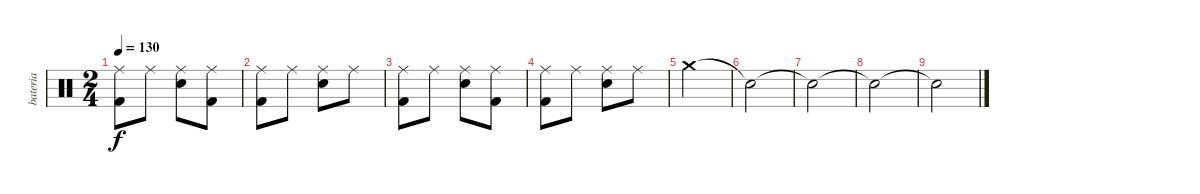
\track ("bateria" "bateria") {instrument percussion}
\staff {score}
\articulation defaults
\ts (2 4)
\tempo 130
\clef neutral
\ks c
("Ride (middle)" "Kick (hit) 2").8{dy f} "Ride (middle)".8 ("Ride (middle)" "Electric Snare (hit)").8 ("Ride (middle)" "Kick (hit) 2").8 |
("Ride (middle)" "Kick (hit) 2").8 "Ride (middle)".8 ("Ride (middle)" "Electric Snare (hit)").8 "Ride (middle)".8 |
("Ride (middle)" "Kick (hit) 2").8 "Ride (middle)".8 ("Ride (middle)" "Electric Snare (hit)").8 ("Ride (middle)" "Kick (hit) 2").8 |
("Ride (middle)" "Kick (hit) 2").8 "Ride (middle)".8 ("Ride (middle)" "Electric Snare (hit)").8 "Ride (middle)".8 |
"Crash medium (hit)".2 |
"Snare (hit)"{t}.2 |
"Snare (hit)"{t}.2 |
"Snare (hit)"{t}.2 |
"Snare (hit)"{t}.2
